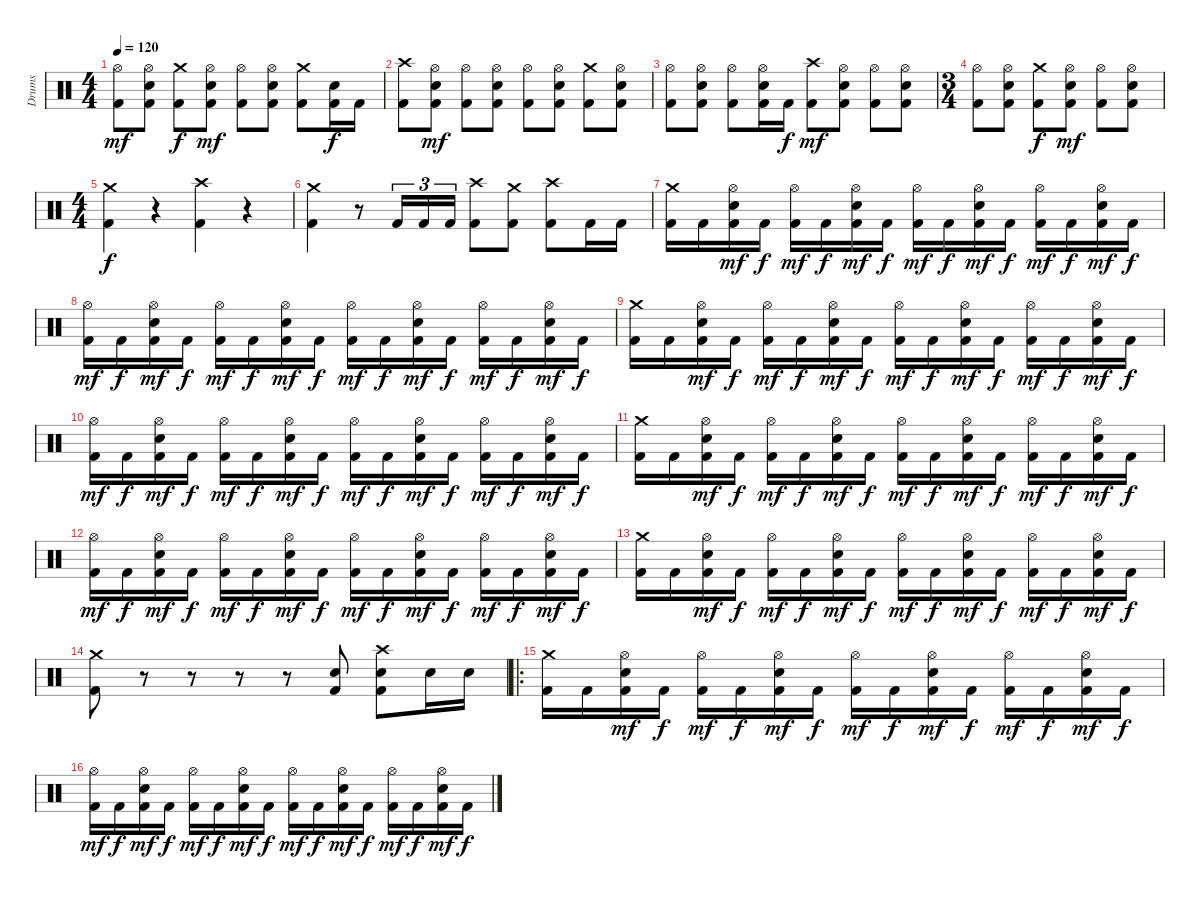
\track ("Drums" "Drums") {instrument percussion}
\staff {score}
\articulation defaults
\ts (4 4)
\tempo 120
\clef neutral
\ks c
("Hi-Hat (open)" "Kick (hit) 2").8{dy mf} ("Hi-Hat (open)" "Snare (hit) 2" "Kick (hit) 2").8 ("Crash medium (hit)" "Kick (hit) 2").8{dy f} ("Hi-Hat (open)" "Snare (hit) 2" "Kick (hit) 2").8{dy mf} ("Hi-Hat (open)" "Kick (hit) 2").8 ("Hi-Hat (open)" "Snare (hit) 2" "Kick (hit) 2").8 ("Crash medium (hit)" "Kick (hit) 2").8 ("Snare (hit) 2" "Kick (hit) 2").16{dy f} "Kick (hit) 2".16 |
("Crash high (hit)" "Kick (hit) 2").8 ("Hi-Hat (open)" "Snare (hit) 2" "Kick (hit) 2").8{dy mf} ("Hi-Hat (open)" "Kick (hit) 2").8 ("Hi-Hat (open)" "Snare (hit) 2" "Kick (hit) 2").8 ("Hi-Hat (open)" "Kick (hit) 2").8 ("Hi-Hat (open)" "Snare (hit) 2" "Kick (hit) 2").8 ("Crash medium (hit)" "Kick (hit) 2").8 ("Hi-Hat (open)" "Snare (hit) 2" "Kick (hit) 2").8 |
("Hi-Hat (open)" "Kick (hit) 2").8 ("Hi-Hat (open)" "Snare (hit) 2" "Kick (hit) 2").8 ("Hi-Hat (open)" "Kick (hit) 2").8 ("Hi-Hat (open)" "Snare (hit) 2" "Kick (hit) 2").16 "Kick (hit) 2".16{dy f} ("Crash high (hit)" "Kick (hit) 2").8{dy mf} ("Hi-Hat (open)" "Snare (hit) 2" "Kick (hit) 2").8 ("Hi-Hat (open)" "Kick (hit) 2").8 ("Hi-Hat (open)" "Snare (hit) 2" "Kick (hit) 2").8 |
\ts (3 4)
("Hi-Hat (open)" "Kick (hit) 2").8 ("Hi-Hat (open)" "Snare (hit) 2" "Kick (hit) 2").8 ("Crash medium (hit)" "Kick (hit) 2").8{dy f} ("Hi-Hat (open)" "Snare (hit) 2" "Kick (hit) 2").8{dy mf} ("Hi-Hat (open)" "Kick (hit) 2").8 ("Hi-Hat (open)" "Snare (hit) 2" "Kick (hit) 2").8 |
\ts (4 4)
("Crash medium (hit)" "Kick (hit) 2").4{dy f} r.4 ("Crash high (hit)" "Kick (hit) 2").4 r.4 |
("Crash medium (hit)" "Kick (hit) 2").4 r.8 "Kick (hit) 2".16{tu (3 2)} "Kick (hit) 2".16{tu (3 2)} "Kick (hit) 2".16{tu (3 2)} ("Crash high (hit)" "Kick (hit) 2").8 ("Crash medium (hit)" "Kick (hit) 2").8 ("Crash high (hit)" "Kick (hit) 2").8 "Kick (hit) 2".16 "Kick (hit) 2".16 |
("Crash medium (hit)" "Kick (hit) 2").16 "Kick (hit) 2".16 ("Hi-Hat (open)" "Snare (hit) 2" "Kick (hit) 2").16{dy mf} "Kick (hit) 2".16{dy f} ("Hi-Hat (open)" "Kick (hit) 2").16{dy mf} "Kick (hit) 2".16{dy f} ("Hi-Hat (open)" "Snare (hit) 2" "Kick (hit) 2").16{dy mf} "Kick (hit) 2".16{dy f} ("Hi-Hat (open)" "Kick (hit) 2").16{dy mf} "Kick (hit) 2".16{dy f} ("Hi-Hat (open)" "Snare (hit) 2" "Kick (hit) 2").16{dy mf} "Kick (hit) 2".16{dy f} ("Hi-Hat (open)" "Kick (hit) 2").16{dy mf} "Kick (hit) 2".16{dy f} ("Hi-Hat (open)" "Snare (hit) 2" "Kick (hit) 2").16{dy mf} "Kick (hit) 2".16{dy f} |
("Hi-Hat (open)" "Kick (hit) 2").16{dy mf} "Kick (hit) 2".16{dy f} ("Hi-Hat (open)" "Snare (hit) 2" "Kick (hit) 2").16{dy mf} "Kick (hit) 2".16{dy f} ("Hi-Hat (open)" "Kick (hit) 2").16{dy mf} "Kick (hit) 2".16{dy f} ("Hi-Hat (open)" "Snare (hit) 2" "Kick (hit) 2").16{dy mf} "Kick (hit) 2".16{dy f} ("Hi-Hat (open)" "Kick (hit) 2").16{dy mf} "Kick (hit) 2".16{dy f} ("Hi-Hat (open)" "Snare (hit) 2" "Kick (hit) 2").16{dy mf} "Kick (hit) 2".16{dy f} ("Hi-Hat (open)" "Kick (hit) 2").16{dy mf} "Kick (hit) 2".16{dy f} ("Hi-Hat (open)" "Snare (hit) 2" "Kick (hit) 2").16{dy mf} "Kick (hit) 2".16{dy f} |
("Crash medium (hit)" "Kick (hit) 2").16 "Kick (hit) 2".16 ("Hi-Hat (open)" "Snare (hit) 2" "Kick (hit) 2").16{dy mf} "Kick (hit) 2".16{dy f} ("Hi-Hat (open)" "Kick (hit) 2").16{dy mf} "Kick (hit) 2".16{dy f} ("Hi-Hat (open)" "Snare (hit) 2" "Kick (hit) 2").16{dy mf} "Kick (hit) 2".16{dy f} ("Hi-Hat (open)" "Kick (hit) 2").16{dy mf} "Kick (hit) 2".16{dy f} ("Hi-Hat (open)" "Snare (hit) 2" "Kick (hit) 2").16{dy mf} "Kick (hit) 2".16{dy f} ("Hi-Hat (open)" "Kick (hit) 2").16{dy mf} "Kick (hit) 2".16{dy f} ("Hi-Hat (open)" "Snare (hit) 2" "Kick (hit) 2").16{dy mf} "Kick (hit) 2".16{dy f} |
("Hi-Hat (open)" "Kick (hit) 2").16{dy mf} "Kick (hit) 2".16{dy f} ("Hi-Hat (open)" "Snare (hit) 2" "Kick (hit) 2").16{dy mf} "Kick (hit) 2".16{dy f} ("Hi-Hat (open)" "Kick (hit) 2").16{dy mf} "Kick (hit) 2".16{dy f} ("Hi-Hat (open)" "Snare (hit) 2" "Kick (hit) 2").16{dy mf} "Kick (hit) 2".16{dy f} ("Hi-Hat (open)" "Kick (hit) 2").16{dy mf} "Kick (hit) 2".16{dy f} ("Hi-Hat (open)" "Snare (hit) 2" "Kick (hit) 2").16{dy mf} "Kick (hit) 2".16{dy f} ("Hi-Hat (open)" "Kick (hit) 2").16{dy mf} "Kick (hit) 2".16{dy f} ("Hi-Hat (open)" "Snare (hit) 2" "Kick (hit) 2").16{dy mf} "Kick (hit) 2".16{dy f} |
("Crash medium (hit)" "Kick (hit) 2").16 "Kick (hit) 2".16 ("Hi-Hat (open)" "Snare (hit) 2" "Kick (hit) 2").16{dy mf} "Kick (hit) 2".16{dy f} ("Hi-Hat (open)" "Kick (hit) 2").16{dy mf} "Kick (hit) 2".16{dy f} ("Hi-Hat (open)" "Snare (hit) 2" "Kick (hit) 2").16{dy mf} "Kick (hit) 2".16{dy f} ("Hi-Hat (open)" "Kick (hit) 2").16{dy mf} "Kick (hit) 2".16{dy f} ("Hi-Hat (open)" "Snare (hit) 2" "Kick (hit) 2").16{dy mf} "Kick (hit) 2".16{dy f} ("Hi-Hat (open)" "Kick (hit) 2").16{dy mf} "Kick (hit) 2".16{dy f} ("Hi-Hat (open)" "Snare (hit) 2" "Kick (hit) 2").16{dy mf} "Kick (hit) 2".16{dy f} |
("Hi-Hat (open)" "Kick (hit) 2").16{dy mf} "Kick (hit) 2".16{dy f} ("Hi-Hat (open)" "Snare (hit) 2" "Kick (hit) 2").16{dy mf} "Kick (hit) 2".16{dy f} ("Hi-Hat (open)" "Kick (hit) 2").16{dy mf} "Kick (hit) 2".16{dy f} ("Hi-Hat (open)" "Snare (hit) 2" "Kick (hit) 2").16{dy mf} "Kick (hit) 2".16{dy f} ("Hi-Hat (open)" "Kick (hit) 2").16{dy mf} "Kick (hit) 2".16{dy f} ("Hi-Hat (open)" "Snare (hit) 2" "Kick (hit) 2").16{dy mf} "Kick (hit) 2".16{dy f} ("Hi-Hat (open)" "Kick (hit) 2").16{dy mf} "Kick (hit) 2".16{dy f} ("Hi-Hat (open)" "Snare (hit) 2" "Kick (hit) 2").16{dy mf} "Kick (hit) 2".16{dy f} |
("Crash medium (hit)" "Kick (hit) 2").16 "Kick (hit) 2".16 ("Hi-Hat (open)" "Snare (hit) 2" "Kick (hit) 2").16{dy mf} "Kick (hit) 2".16{dy f} ("Hi-Hat (open)" "Kick (hit) 2").16{dy mf} "Kick (hit) 2".16{dy f} ("Hi-Hat (open)" "Snare (hit) 2" "Kick (hit) 2").16{dy mf} "Kick (hit) 2".16{dy f} ("Hi-Hat (open)" "Kick (hit) 2").16{dy mf} "Kick (hit) 2".16{dy f} ("Hi-Hat (open)" "Snare (hit) 2" "Kick (hit) 2").16{dy mf} "Kick (hit) 2".16{dy f} ("Hi-Hat (open)" "Kick (hit) 2").16{dy mf} "Kick (hit) 2".16{dy f} ("Hi-Hat (open)" "Snare (hit) 2" "Kick (hit) 2").16{dy mf} "Kick (hit) 2".16{dy f} |
("Crash medium (hit)" "Kick (hit) 2").8 r.8 r.8 r.8 r.8 ("Kick (hit) 2" "Snare (hit) 2").8 ("Snare (hit) 2" "Kick (hit) 2" "Crash high (hit)").8 "Snare (hit) 2".16 "Snare (hit) 2".16 |
\ro
("Crash medium (hit)" "Kick (hit) 2").16 "Kick (hit) 2".16 ("Hi-Hat (open)" "Snare (hit) 2" "Kick (hit) 2").16{dy mf} "Kick (hit) 2".16{dy f} ("Hi-Hat (open)" "Kick (hit) 2").16{dy mf} "Kick (hit) 2".16{dy f} ("Hi-Hat (open)" "Snare (hit) 2" "Kick (hit) 2").16{dy mf} "Kick (hit) 2".16{dy f} ("Hi-Hat (open)" "Kick (hit) 2").16{dy mf} "Kick (hit) 2".16{dy f} ("Hi-Hat (open)" "Snare (hit) 2" "Kick (hit) 2").16{dy mf} "Kick (hit) 2".16{dy f} ("Hi-Hat (open)" "Kick (hit) 2").16{dy mf} "Kick (hit) 2".16{dy f} ("Hi-Hat (open)" "Snare (hit) 2" "Kick (hit) 2").16{dy mf} "Kick (hit) 2".16{dy f} |
("Hi-Hat (open)" "Kick (hit) 2").16{dy mf} "Kick (hit) 2".16{dy f} ("Hi-Hat (open)" "Snare (hit) 2" "Kick (hit) 2").16{dy mf} "Kick (hit) 2".16{dy f} ("Hi-Hat (open)" "Kick (hit) 2").16{dy mf} "Kick (hit) 2".16{dy f} ("Hi-Hat (open)" "Snare (hit) 2" "Kick (hit) 2").16{dy mf} "Kick (hit) 2".16{dy f} ("Hi-Hat (open)" "Kick (hit) 2").16{dy mf} "Kick (hit) 2".16{dy f} ("Hi-Hat (open)" "Snare (hit) 2" "Kick (hit) 2").16{dy mf} "Kick (hit) 2".16{dy f} ("Hi-Hat (open)" "Kick (hit) 2").16{dy mf} "Kick (hit) 2".16{dy f} ("Hi-Hat (open)" "Snare (hit) 2" "Kick (hit) 2").16{dy mf} "Kick (hit) 2".16{dy f}
